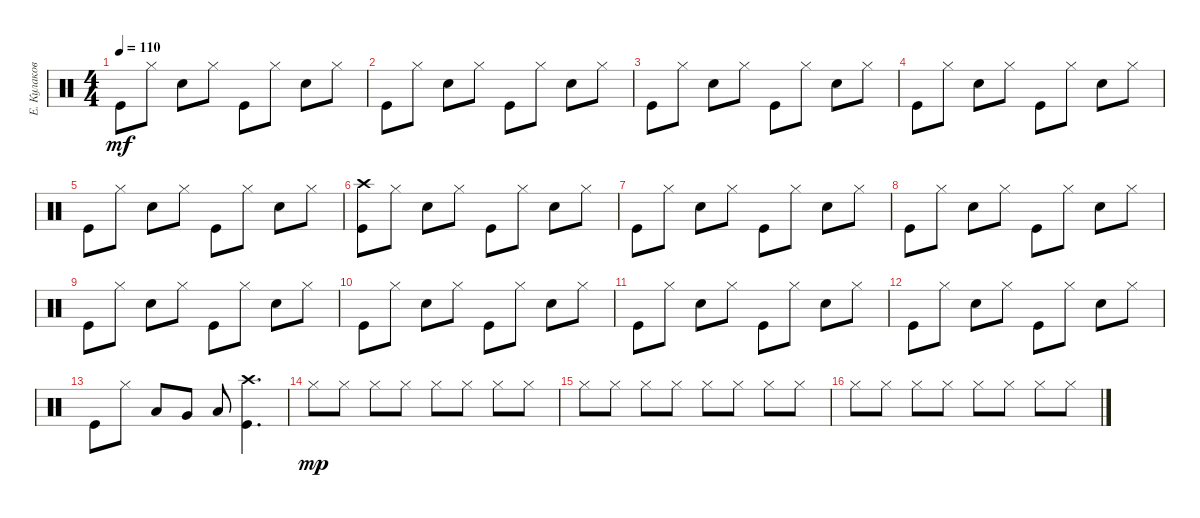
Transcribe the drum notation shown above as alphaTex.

\track ("Е. Кулаков" "Е. Кулаков") {instrument percussion}
\staff {score}
\articulation defaults
\ts (4 4)
\tempo 110
\clef neutral
\ks c "Kick (hit)".8{dy mf} "Hi-Hat (closed)".8 "Snare (hit) 2".8 "Hi-Hat (closed)".8 "Kick (hit)".8 "Hi-Hat (closed)".8 "Snare (hit) 2".8 "Hi-Hat (closed)".8
|
"Kick (hit)".8 "Hi-Hat (closed)".8 "Snare (hit) 2".8 "Hi-Hat (closed)".8 "Kick (hit)".8 "Hi-Hat (closed)".8 "Snare (hit) 2".8 "Hi-Hat (closed)".8 |
"Kick (hit)".8 "Hi-Hat (closed)".8 "Snare (hit) 2".8 "Hi-Hat (closed)".8 "Kick (hit)".8 "Hi-Hat (closed)".8 "Snare (hit) 2".8 "Hi-Hat (closed)".8 |
"Kick (hit)".8 "Hi-Hat (closed)".8 "Snare (hit) 2".8 "Hi-Hat (closed)".8 "Kick (hit)".8 "Hi-Hat (closed)".8 "Snare (hit) 2".8 "Hi-Hat (closed)".8 |
"Kick (hit)".8 "Hi-Hat (closed)".8 "Snare (hit) 2".8 "Hi-Hat (closed)".8 "Kick (hit)".8 "Hi-Hat (closed)".8 "Snare (hit) 2".8 "Hi-Hat (closed)".8 |
("Kick (hit)" "Crash high (hit)").8 "Hi-Hat (closed)".8 "Snare (hit) 2".8 "Hi-Hat (closed)".8 "Kick (hit)".8 "Hi-Hat (closed)".8 "Snare (hit) 2".8 "Hi-Hat (closed)".8 |
"Kick (hit)".8 "Hi-Hat (closed)".8 "Snare (hit) 2".8 "Hi-Hat (closed)".8 "Kick (hit)".8 "Hi-Hat (closed)".8 "Snare (hit) 2".8 "Hi-Hat (closed)".8 |
"Kick (hit)".8 "Hi-Hat (closed)".8 "Snare (hit) 2".8 "Hi-Hat (closed)".8 "Kick (hit)".8 "Hi-Hat (closed)".8 "Snare (hit) 2".8 "Hi-Hat (closed)".8 |
"Kick (hit)".8 "Hi-Hat (closed)".8 "Snare (hit) 2".8 "Hi-Hat (closed)".8 "Kick (hit)".8 "Hi-Hat (closed)".8 "Snare (hit) 2".8 "Hi-Hat (closed)".8 |
"Kick (hit)".8 "Hi-Hat (closed)".8 "Snare (hit) 2".8 "Hi-Hat (closed)".8 "Kick (hit)".8 "Hi-Hat (closed)".8 "Snare (hit) 2".8 "Hi-Hat (closed)".8 |
"Kick (hit)".8 "Hi-Hat (closed)".8 "Snare (hit) 2".8 "Hi-Hat (closed)".8 "Kick (hit)".8 "Hi-Hat (closed)".8 "Snare (hit) 2".8 "Hi-Hat (closed)".8 |
"Kick (hit)".8 "Hi-Hat (closed)".8 "Snare (hit) 2".8 "Hi-Hat (closed)".8 "Kick (hit)".8 "Hi-Hat (closed)".8 "Snare (hit) 2".8 "Hi-Hat (closed)".8 |
"Kick (hit)".8 "Hi-Hat (closed)".8 "Low Tom (hit)".8 "Very Low Tom (hit)".8 "Low Floor Tom (hit)".8 ("Kick (hit)" "Crash high (hit)").4{d} |
"Hi-Hat (closed)".8{dy mp} "Hi-Hat (closed)".8 "Hi-Hat (closed)".8 "Hi-Hat (closed)".8 "Hi-Hat (closed)".8 "Hi-Hat (closed)".8 "Hi-Hat (closed)".8 "Hi-Hat (closed)".8 |
"Hi-Hat (closed)".8 "Hi-Hat (closed)".8 "Hi-Hat (closed)".8 "Hi-Hat (closed)".8 "Hi-Hat (closed)".8 "Hi-Hat (closed)".8 "Hi-Hat (closed)".8 "Hi-Hat (closed)".8 |
"Hi-Hat (closed)".8 "Hi-Hat (closed)".8 "Hi-Hat (closed)".8 "Hi-Hat (closed)".8 "Hi-Hat (closed)".8 "Hi-Hat (closed)".8 "Hi-Hat (closed)".8 "Hi-Hat (closed)".8
